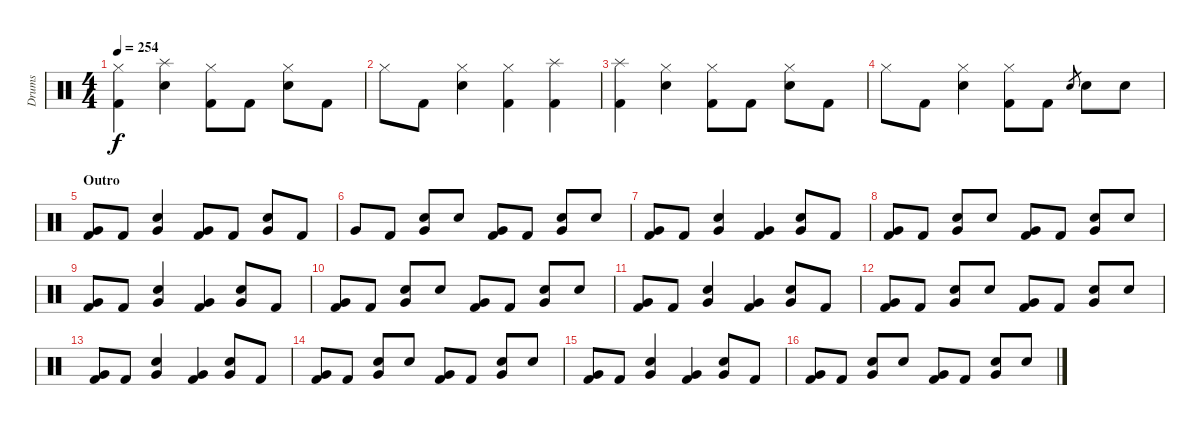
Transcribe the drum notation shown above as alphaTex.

\track ("Drums" "Drums") {instrument percussion}
\staff {score}
\articulation defaults
\ts (4 4)
\tempo 254
\clef neutral
\ks c
("Hi-Hat (closed)" "Kick (hit) 2").4{dy f} ("Splash (hit)" "Electric Snare (hit)").4 ("Hi-Hat (closed)" "Kick (hit) 2").8 "Kick (hit) 2".8 ("Hi-Hat (closed)" "Electric Snare (hit)").8 "Kick (hit) 2".8 |
"Hi-Hat (closed)".8 "Kick (hit) 2".8 ("Hi-Hat (closed)" "Electric Snare (hit)").4 ("Hi-Hat (closed)" "Kick (hit) 2").4 ("Splash (hit)" "Kick (hit) 2").4 |
("Splash (hit)" "Kick (hit) 2").4 ("Hi-Hat (closed)" "Electric Snare (hit)").4 ("Hi-Hat (closed)" "Kick (hit) 2").8 "Kick (hit) 2".8 ("Hi-Hat (closed)" "Electric Snare (hit)").8 "Kick (hit) 2".8 |
"Hi-Hat (closed)".8 "Kick (hit) 2".8 ("Hi-Hat (closed)" "Electric Snare (hit)").4 ("Hi-Hat (closed)" "Kick (hit) 2").8 "Kick (hit) 2".8 "Electric Snare (hit)".8{gr} "Electric Snare (hit)".8 "Electric Snare (hit)".8 |
\section ("" "Outro")
("Very Low Tom (hit)" "Kick (hit) 2").8 "Kick (hit) 2".8 ("Very Low Tom (hit)" "Electric Snare (hit)").4 ("Very Low Tom (hit)" "Kick (hit) 2").8 "Kick (hit) 2".8 ("Very Low Tom (hit)" "Electric Snare (hit)").8 "Kick (hit) 2".8 |
"Very Low Tom (hit)".8 "Kick (hit) 2".8 ("Very Low Tom (hit)" "Electric Snare (hit)").8 "Electric Snare (hit)".8 ("Very Low Tom (hit)" "Kick (hit) 2").8 "Kick (hit) 2".8 ("Very Low Tom (hit)" "Electric Snare (hit)").8 "Electric Snare (hit)".8 |
("Very Low Tom (hit)" "Kick (hit) 2").8 "Kick (hit) 2".8 ("Very Low Tom (hit)" "Electric Snare (hit)").4 ("Very Low Tom (hit)" "Kick (hit) 2").4 ("Very Low Tom (hit)" "Electric Snare (hit)").8 "Kick (hit) 2".8 |
("Very Low Tom (hit)" "Kick (hit) 2").8 "Kick (hit) 2".8 ("Very Low Tom (hit)" "Electric Snare (hit)").8 "Electric Snare (hit)".8 ("Very Low Tom (hit)" "Kick (hit) 2").8 "Kick (hit) 2".8 ("Very Low Tom (hit)" "Electric Snare (hit)").8 "Electric Snare (hit)".8 |
("Very Low Tom (hit)" "Kick (hit) 2").8 "Kick (hit) 2".8 ("Very Low Tom (hit)" "Electric Snare (hit)").4 ("Very Low Tom (hit)" "Kick (hit) 2").4 ("Very Low Tom (hit)" "Electric Snare (hit)").8 "Kick (hit) 2".8 |
("Very Low Tom (hit)" "Kick (hit) 2").8 "Kick (hit) 2".8 ("Very Low Tom (hit)" "Electric Snare (hit)").8 "Electric Snare (hit)".8 ("Very Low Tom (hit)" "Kick (hit) 2").8 "Kick (hit) 2".8 ("Very Low Tom (hit)" "Electric Snare (hit)").8 "Electric Snare (hit)".8 |
("Very Low Tom (hit)" "Kick (hit) 2").8 "Kick (hit) 2".8 ("Very Low Tom (hit)" "Electric Snare (hit)").4 ("Very Low Tom (hit)" "Kick (hit) 2").4 ("Very Low Tom (hit)" "Electric Snare (hit)").8 "Kick (hit) 2".8 |
("Very Low Tom (hit)" "Kick (hit) 2").8 "Kick (hit) 2".8 ("Very Low Tom (hit)" "Electric Snare (hit)").8 "Electric Snare (hit)".8 ("Very Low Tom (hit)" "Kick (hit) 2").8 "Kick (hit) 2".8 ("Very Low Tom (hit)" "Electric Snare (hit)").8 "Electric Snare (hit)".8 |
("Very Low Tom (hit)" "Kick (hit) 2").8 "Kick (hit) 2".8 ("Very Low Tom (hit)" "Electric Snare (hit)").4 ("Very Low Tom (hit)" "Kick (hit) 2").4 ("Very Low Tom (hit)" "Electric Snare (hit)").8 "Kick (hit) 2".8 |
("Very Low Tom (hit)" "Kick (hit) 2").8 "Kick (hit) 2".8 ("Very Low Tom (hit)" "Electric Snare (hit)").8 "Electric Snare (hit)".8 ("Very Low Tom (hit)" "Kick (hit) 2").8 "Kick (hit) 2".8 ("Very Low Tom (hit)" "Electric Snare (hit)").8 "Electric Snare (hit)".8 |
("Very Low Tom (hit)" "Kick (hit) 2").8 "Kick (hit) 2".8 ("Very Low Tom (hit)" "Electric Snare (hit)").4 ("Very Low Tom (hit)" "Kick (hit) 2").4 ("Very Low Tom (hit)" "Electric Snare (hit)").8 "Kick (hit) 2".8 |
("Very Low Tom (hit)" "Kick (hit) 2").8 "Kick (hit) 2".8 ("Very Low Tom (hit)" "Electric Snare (hit)").8 "Electric Snare (hit)".8 ("Very Low Tom (hit)" "Kick (hit) 2").8 "Kick (hit) 2".8 ("Very Low Tom (hit)" "Electric Snare (hit)").8 "Electric Snare (hit)".8
